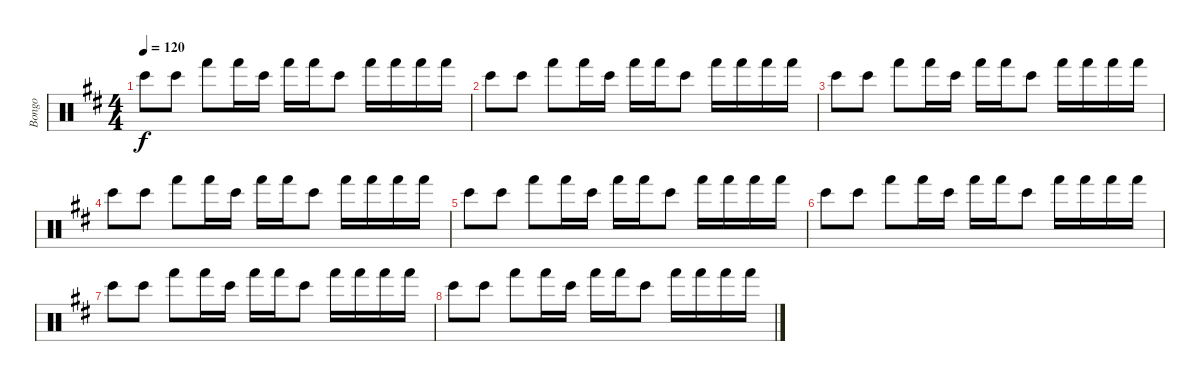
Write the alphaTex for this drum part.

\track ("Bongo" "Bongo") {instrument percussion}
\staff {score}
\articulation defaults
\ts (4 4)
\tempo 120
\clef neutral
\ks d "Bongo High (hit)".8{dy f} "Bongo High (hit)".8 "Hand (hit)".8 "Hand (hit)".16 "Bongo High (hit)".16 "Hand (hit)".16 "Hand (hit)".16 "Bongo High (hit)".8 "Hand (hit)".16 "Hand (hit)".16 "Hand (hit)".16 "Hand (hit)".16
|
"Bongo High (hit)".8 "Bongo High (hit)".8 "Hand (hit)".8 "Hand (hit)".16 "Bongo High (hit)".16 "Hand (hit)".16 "Hand (hit)".16 "Bongo High (hit)".8 "Hand (hit)".16 "Hand (hit)".16 "Hand (hit)".16 "Hand (hit)".16 |
"Bongo High (hit)".8 "Bongo High (hit)".8 "Hand (hit)".8 "Hand (hit)".16 "Bongo High (hit)".16 "Hand (hit)".16 "Hand (hit)".16 "Bongo High (hit)".8 "Hand (hit)".16 "Hand (hit)".16 "Hand (hit)".16 "Hand (hit)".16 |
"Bongo High (hit)".8 "Bongo High (hit)".8 "Hand (hit)".8 "Hand (hit)".16 "Bongo High (hit)".16 "Hand (hit)".16 "Hand (hit)".16 "Bongo High (hit)".8 "Hand (hit)".16 "Hand (hit)".16 "Hand (hit)".16 "Hand (hit)".16 |
"Bongo High (hit)".8 "Bongo High (hit)".8 "Hand (hit)".8 "Hand (hit)".16 "Bongo High (hit)".16 "Hand (hit)".16 "Hand (hit)".16 "Bongo High (hit)".8 "Hand (hit)".16 "Hand (hit)".16 "Hand (hit)".16 "Hand (hit)".16 |
"Bongo High (hit)".8 "Bongo High (hit)".8 "Hand (hit)".8 "Hand (hit)".16 "Bongo High (hit)".16 "Hand (hit)".16 "Hand (hit)".16 "Bongo High (hit)".8 "Hand (hit)".16 "Hand (hit)".16 "Hand (hit)".16 "Hand (hit)".16 |
"Bongo High (hit)".8 "Bongo High (hit)".8 "Hand (hit)".8 "Hand (hit)".16 "Bongo High (hit)".16 "Hand (hit)".16 "Hand (hit)".16 "Bongo High (hit)".8 "Hand (hit)".16 "Hand (hit)".16 "Hand (hit)".16 "Hand (hit)".16 |
"Bongo High (hit)".8 "Bongo High (hit)".8 "Hand (hit)".8 "Hand (hit)".16 "Bongo High (hit)".16 "Hand (hit)".16 "Hand (hit)".16 "Bongo High (hit)".8 "Hand (hit)".16 "Hand (hit)".16 "Hand (hit)".16 "Hand (hit)".16
